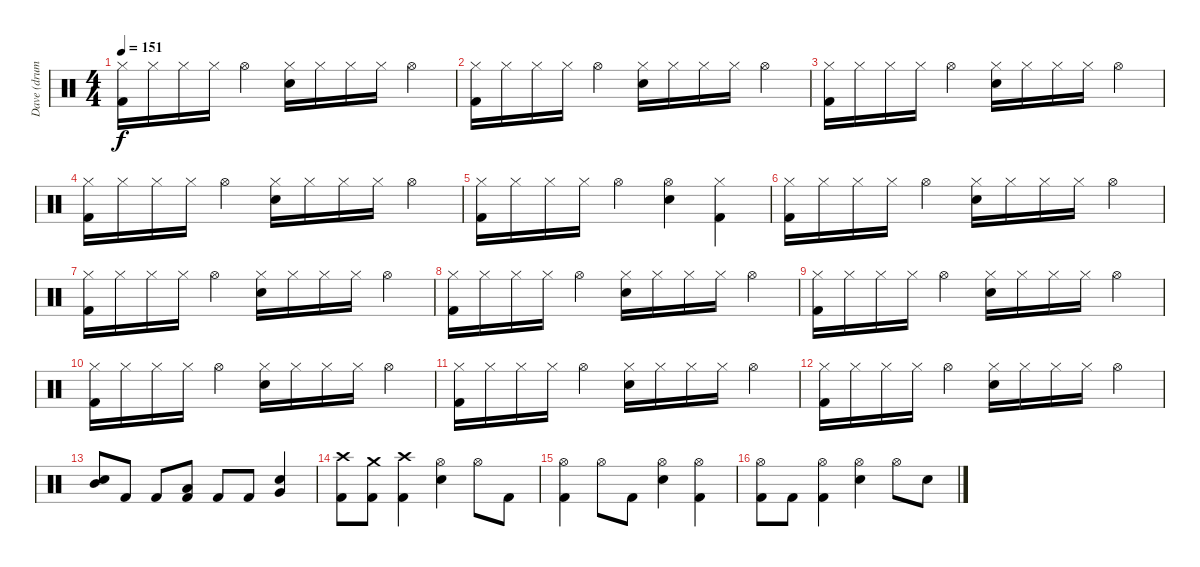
\track ("Dave (drums)" "Dave (drum") {instrument percussion}
\staff {score}
\articulation defaults
\ts (4 4)
\tempo 151
\clef neutral
\ks c
("Hi-Hat (closed)" "Kick (hit) 2").16{dy f} "Hi-Hat (closed)".16 "Hi-Hat (closed)".16 "Hi-Hat (closed)".16 "Hi-Hat (open)".4 ("Hi-Hat (closed)" "Electric Snare (hit)").16 "Hi-Hat (closed)".16 "Hi-Hat (closed)".16 "Hi-Hat (closed)".16 "Hi-Hat (open)".4 |
("Hi-Hat (closed)" "Kick (hit) 2").16 "Hi-Hat (closed)".16 "Hi-Hat (closed)".16 "Hi-Hat (closed)".16 "Hi-Hat (open)".4 ("Hi-Hat (closed)" "Electric Snare (hit)").16 "Hi-Hat (closed)".16 "Hi-Hat (closed)".16 "Hi-Hat (closed)".16 "Hi-Hat (open)".4 |
("Hi-Hat (closed)" "Kick (hit) 2").16 "Hi-Hat (closed)".16 "Hi-Hat (closed)".16 "Hi-Hat (closed)".16 "Hi-Hat (open)".4 ("Hi-Hat (closed)" "Electric Snare (hit)").16 "Hi-Hat (closed)".16 "Hi-Hat (closed)".16 "Hi-Hat (closed)".16 "Hi-Hat (open)".4 |
("Hi-Hat (closed)" "Kick (hit) 2").16 "Hi-Hat (closed)".16 "Hi-Hat (closed)".16 "Hi-Hat (closed)".16 "Hi-Hat (open)".4 ("Hi-Hat (closed)" "Electric Snare (hit)").16 "Hi-Hat (closed)".16 "Hi-Hat (closed)".16 "Hi-Hat (closed)".16 "Hi-Hat (open)".4 |
("Kick (hit) 2" "Hi-Hat (closed)").16 "Hi-Hat (closed)".16 "Hi-Hat (closed)".16 "Hi-Hat (closed)".16 "Hi-Hat (open)".4 ("Hi-Hat (open)" "Electric Snare (hit)").4 ("Hi-Hat (closed)" "Kick (hit) 2").4 |
("Hi-Hat (closed)" "Kick (hit) 2").16 "Hi-Hat (closed)".16 "Hi-Hat (closed)".16 "Hi-Hat (closed)".16 "Hi-Hat (open)".4 ("Hi-Hat (closed)" "Electric Snare (hit)").16 "Hi-Hat (closed)".16 "Hi-Hat (closed)".16 "Hi-Hat (closed)".16 "Hi-Hat (open)".4 |
("Hi-Hat (closed)" "Kick (hit) 2").16 "Hi-Hat (closed)".16 "Hi-Hat (closed)".16 "Hi-Hat (closed)".16 "Hi-Hat (open)".4 ("Hi-Hat (closed)" "Electric Snare (hit)").16 "Hi-Hat (closed)".16 "Hi-Hat (closed)".16 "Hi-Hat (closed)".16 "Hi-Hat (open)".4 |
("Hi-Hat (closed)" "Kick (hit) 2").16 "Hi-Hat (closed)".16 "Hi-Hat (closed)".16 "Hi-Hat (closed)".16 "Hi-Hat (open)".4 ("Hi-Hat (closed)" "Electric Snare (hit)").16 "Hi-Hat (closed)".16 "Hi-Hat (closed)".16 "Hi-Hat (closed)".16 "Hi-Hat (open)".4 |
("Hi-Hat (closed)" "Kick (hit) 2").16 "Hi-Hat (closed)".16 "Hi-Hat (closed)".16 "Hi-Hat (closed)".16 "Hi-Hat (open)".4 ("Hi-Hat (closed)" "Electric Snare (hit)").16 "Hi-Hat (closed)".16 "Hi-Hat (closed)".16 "Hi-Hat (closed)".16 "Hi-Hat (open)".4 |
("Kick (hit) 2" "Hi-Hat (closed)").16 "Hi-Hat (closed)".16 "Hi-Hat (closed)".16 "Hi-Hat (closed)".16 "Hi-Hat (open)".4 ("Hi-Hat (closed)" "Electric Snare (hit)").16 "Hi-Hat (closed)".16 "Hi-Hat (closed)".16 "Hi-Hat (closed)".16 "Hi-Hat (open)".4 |
("Hi-Hat (closed)" "Kick (hit) 2").16 "Hi-Hat (closed)".16 "Hi-Hat (closed)".16 "Hi-Hat (closed)".16 "Hi-Hat (open)".4 ("Hi-Hat (closed)" "Electric Snare (hit)").16 "Hi-Hat (closed)".16 "Hi-Hat (closed)".16 "Hi-Hat (closed)".16 "Hi-Hat (open)".4 |
("Hi-Hat (closed)" "Kick (hit) 2").16 "Hi-Hat (closed)".16 "Hi-Hat (closed)".16 "Hi-Hat (closed)".16 "Hi-Hat (open)".4 ("Hi-Hat (closed)" "Electric Snare (hit)").16 "Hi-Hat (closed)".16 "Hi-Hat (closed)".16 "Hi-Hat (closed)".16 "Hi-Hat (open)".4 |
("Mid Tom (hit)" "Electric Snare (hit)").8 "Kick (hit) 2".8 "Kick (hit) 2".8 ("Low Tom (hit)" "Kick (hit) 2").8 "Kick (hit) 2".8 "Kick (hit) 2".8 ("Very Low Tom (hit)" "Electric Snare (hit)").4 |
("Kick (hit) 2" "Crash high (hit)").8 ("Crash medium (hit)" "Kick (hit) 2").8 ("Crash high (hit)" "Kick (hit) 2").4 ("Hi-Hat (open)" "Electric Snare (hit)").4 "Hi-Hat (open)".8 "Kick (hit) 2".8 |
("Hi-Hat (open)" "Kick (hit) 2").4 "Hi-Hat (open)".8 "Kick (hit) 2".8 ("Hi-Hat (open)" "Electric Snare (hit)").4 ("Hi-Hat (open)" "Kick (hit) 2").4 |
("Hi-Hat (open)" "Kick (hit) 2").8 "Kick (hit) 2".8 ("Hi-Hat (open)" "Kick (hit) 2").4 ("Hi-Hat (open)" "Electric Snare (hit)").4 "Hi-Hat (open)".8 "Electric Snare (hit)".8
